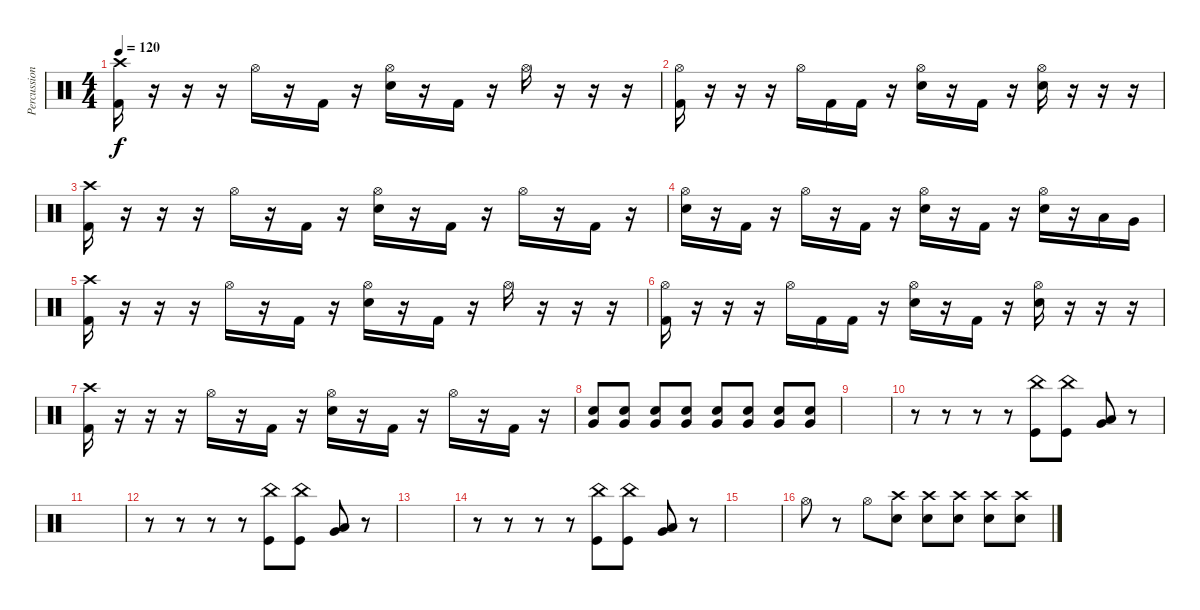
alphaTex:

\track ("Percussion" "Percussion") {instrument percussion}
\staff {score}
\articulation defaults
\ts (4 4)
\tempo 120
\clef neutral
\ks c
("Crash high (hit)" "Kick (hit) 2").16{dy f} r.16 r.16 r.16 "Hi-Hat (open)".16 r.16 "Kick (hit) 2".16 r.16 ("Hi-Hat (open)" "Electric Snare (hit)").16 r.16 "Kick (hit) 2".16 r.16 "Hi-Hat (open)".16 r.16 r.16 r.16 |
("Hi-Hat (open)" "Kick (hit) 2").16 r.16 r.16 r.16 "Hi-Hat (open)".16 "Kick (hit) 2".16 "Kick (hit) 2".16 r.16 ("Hi-Hat (open)" "Electric Snare (hit)").16 r.16 "Kick (hit) 2".16 r.16 ("Hi-Hat (open)" "Electric Snare (hit)").16 r.16 r.16 r.16 |
("Crash high (hit)" "Kick (hit) 2").16 r.16 r.16 r.16 "Hi-Hat (open)".16 r.16 "Kick (hit) 2".16 r.16 ("Hi-Hat (open)" "Electric Snare (hit)").16 r.16 "Kick (hit) 2".16 r.16 "Hi-Hat (open)".16 r.16 "Kick (hit) 2".16 r.16 |
("Hi-Hat (open)" "Electric Snare (hit)").16 r.16 "Kick (hit) 2".16 r.16 "Hi-Hat (open)".16 r.16 "Kick (hit) 2".16 r.16 ("Hi-Hat (open)" "Electric Snare (hit)").16 r.16 "Kick (hit) 2".16 r.16 ("Hi-Hat (open)" "Electric Snare (hit)").16 r.16 "Low Floor Tom (hit)".16 "Very Low Tom (hit)".16 |
("Crash high (hit)" "Kick (hit) 2").16 r.16 r.16 r.16 "Hi-Hat (open)".16 r.16 "Kick (hit) 2".16 r.16 ("Hi-Hat (open)" "Electric Snare (hit)").16 r.16 "Kick (hit) 2".16 r.16 "Hi-Hat (open)".16 r.16 r.16 r.16 |
("Hi-Hat (open)" "Kick (hit) 2").16 r.16 r.16 r.16 "Hi-Hat (open)".16 "Kick (hit) 2".16 "Kick (hit) 2".16 r.16 ("Hi-Hat (open)" "Electric Snare (hit)").16 r.16 "Kick (hit) 2".16 r.16 ("Hi-Hat (open)" "Electric Snare (hit)").16 r.16 r.16 r.16 |
("Crash high (hit)" "Kick (hit) 2").16 r.16 r.16 r.16 "Hi-Hat (open)".16 r.16 "Kick (hit) 2".16 r.16 ("Hi-Hat (open)" "Electric Snare (hit)").16 r.16 "Kick (hit) 2".16 r.16 "Hi-Hat (open)".16 r.16 "Kick (hit) 2".16 r.16 |
("Very Low Tom (hit)" "Snare (hit) 2").8 ("Very Low Tom (hit)" "Snare (hit) 2").8 ("Very Low Tom (hit)" "Snare (hit) 2").8 ("Very Low Tom (hit)" "Snare (hit) 2").8 ("Very Low Tom (hit)" "Snare (hit) 2").8 ("Very Low Tom (hit)" "Snare (hit) 2").8 ("Very Low Tom (hit)" "Snare (hit) 2").8 ("Very Low Tom (hit)" "Snare (hit) 2").8 |
|
r.8 r.8 r.8 r.8 ("China (hit)" "Kick (hit)").8 ("Kick (hit)" "China (hit)").8 ("Very Low Tom (hit)" "Low Floor Tom (hit)").8 r.8 |
|
r.8 r.8 r.8 r.8 ("China (hit)" "Kick (hit)").8 ("Kick (hit)" "China (hit)").8 ("Very Low Tom (hit)" "Low Floor Tom (hit)").8 r.8 |
|
r.8 r.8 r.8 r.8 ("China (hit)" "Kick (hit)").8 ("Kick (hit)" "China (hit)").8 ("Very Low Tom (hit)" "Low Floor Tom (hit)").8 r.8 |
|
"Hi-Hat (open)".8 r.8 "Hi-Hat (open)".8 ("Snare (hit) 2" "Crash high (hit)").8 ("Snare (hit) 2" "Crash high (hit)").8 ("Snare (hit) 2" "Crash high (hit)").8 ("Snare (hit) 2" "Crash high (hit)").8 ("Snare (hit) 2" "Crash high (hit)").8
